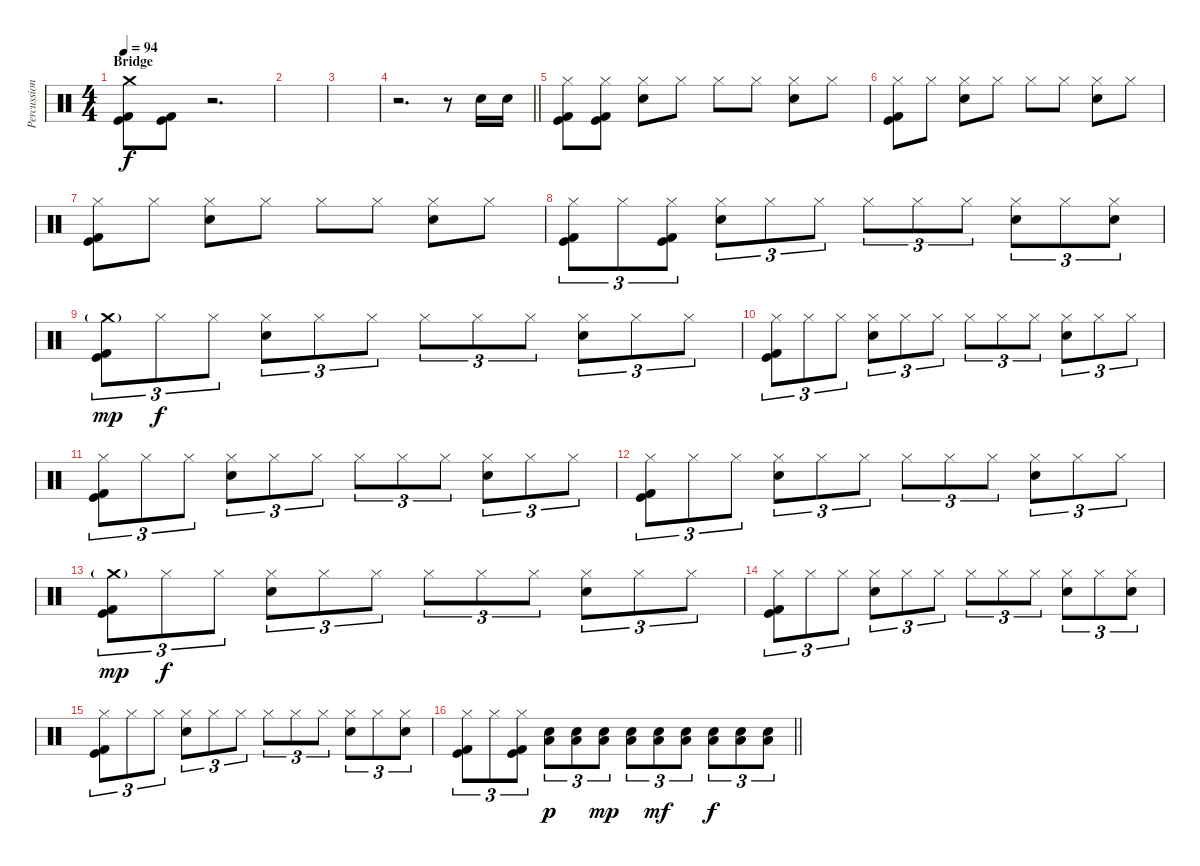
\track ("Percussion" "Percussion") {instrument percussion}
\staff {score}
\articulation defaults
\ts (4 4)
\section ("" "Bridge")
\tempo 94
\clef neutral
\ks c
("Crash medium (hit)" "Kick (hit)" "Kick (hit) 2").8{dy f} ("Kick (hit)" "Kick (hit) 2").8 r.2{d} |
|
|
\barLineRight lightlight
r.2{d} r.8 "Electric Snare (hit)".16 "Electric Snare (hit)".16 |
("Hi-Hat (closed)" "Kick (hit)" "Kick (hit) 2").8 ("Hi-Hat (closed)" "Kick (hit)" "Kick (hit) 2").8 ("Hi-Hat (closed)" "Electric Snare (hit)").8 "Hi-Hat (closed)".8 "Hi-Hat (closed)".8 "Hi-Hat (closed)".8 ("Hi-Hat (closed)" "Electric Snare (hit)").8 "Hi-Hat (closed)".8 |
("Hi-Hat (closed)" "Kick (hit)" "Kick (hit) 2").8 "Hi-Hat (closed)".8 ("Hi-Hat (closed)" "Electric Snare (hit)").8 "Hi-Hat (closed)".8 "Hi-Hat (closed)".8 "Hi-Hat (closed)".8 ("Hi-Hat (closed)" "Electric Snare (hit)").8 "Hi-Hat (closed)".8 |
("Hi-Hat (closed)" "Kick (hit)" "Kick (hit) 2").8 "Hi-Hat (closed)".8 ("Hi-Hat (closed)" "Electric Snare (hit)").8 "Hi-Hat (closed)".8 "Hi-Hat (closed)".8 "Hi-Hat (closed)".8 ("Hi-Hat (closed)" "Electric Snare (hit)").8 "Hi-Hat (closed)".8 |
("Hi-Hat (closed)" "Kick (hit)" "Kick (hit) 2").8{tu (3 2)} "Hi-Hat (closed)".8{tu (3 2)} ("Hi-Hat (closed)" "Kick (hit)" "Kick (hit) 2").8{tu (3 2)} ("Hi-Hat (closed)" "Electric Snare (hit)").8{tu (3 2)} "Hi-Hat (closed)".8{tu (3 2)} "Hi-Hat (closed)".8{tu (3 2)} "Hi-Hat (closed)".8{tu (3 2)} "Hi-Hat (closed)".8{tu (3 2)} "Hi-Hat (closed)".8{tu (3 2)} ("Hi-Hat (closed)" "Electric Snare (hit)").8{tu (3 2)} "Hi-Hat (closed)".8{tu (3 2)} ("Hi-Hat (closed)" "Electric Snare (hit)").8{tu (3 2)} |
("Crash medium (hit)"{g} "Kick (hit)" "Kick (hit) 2").8{tu (3 2) dy mp} "Hi-Hat (closed)".8{tu (3 2) dy f} "Hi-Hat (closed)".8{tu (3 2)} ("Hi-Hat (closed)" "Electric Snare (hit)").8{tu (3 2)} "Hi-Hat (closed)".8{tu (3 2)} "Hi-Hat (closed)".8{tu (3 2)} "Hi-Hat (closed)".8{tu (3 2)} "Hi-Hat (closed)".8{tu (3 2)} "Hi-Hat (closed)".8{tu (3 2)} ("Hi-Hat (closed)" "Electric Snare (hit)").8{tu (3 2)} "Hi-Hat (closed)".8{tu (3 2)} "Hi-Hat (closed)".8{tu (3 2)} |
("Hi-Hat (closed)" "Kick (hit)" "Kick (hit) 2").8{tu (3 2)} "Hi-Hat (closed)".8{tu (3 2)} "Hi-Hat (closed)".8{tu (3 2)} ("Hi-Hat (closed)" "Electric Snare (hit)").8{tu (3 2)} "Hi-Hat (closed)".8{tu (3 2)} "Hi-Hat (closed)".8{tu (3 2)} "Hi-Hat (closed)".8{tu (3 2)} "Hi-Hat (closed)".8{tu (3 2)} "Hi-Hat (closed)".8{tu (3 2)} ("Hi-Hat (closed)" "Electric Snare (hit)").8{tu (3 2)} "Hi-Hat (closed)".8{tu (3 2)} "Hi-Hat (closed)".8{tu (3 2)} |
("Hi-Hat (closed)" "Kick (hit)" "Kick (hit) 2").8{tu (3 2)} "Hi-Hat (closed)".8{tu (3 2)} "Hi-Hat (closed)".8{tu (3 2)} ("Hi-Hat (closed)" "Electric Snare (hit)").8{tu (3 2)} "Hi-Hat (closed)".8{tu (3 2)} "Hi-Hat (closed)".8{tu (3 2)} "Hi-Hat (closed)".8{tu (3 2)} "Hi-Hat (closed)".8{tu (3 2)} "Hi-Hat (closed)".8{tu (3 2)} ("Hi-Hat (closed)" "Electric Snare (hit)").8{tu (3 2)} "Hi-Hat (closed)".8{tu (3 2)} "Hi-Hat (closed)".8{tu (3 2)} |
("Hi-Hat (closed)" "Kick (hit)" "Kick (hit) 2").8{tu (3 2)} "Hi-Hat (closed)".8{tu (3 2)} "Hi-Hat (closed)".8{tu (3 2)} ("Hi-Hat (closed)" "Electric Snare (hit)").8{tu (3 2)} "Hi-Hat (closed)".8{tu (3 2)} "Hi-Hat (closed)".8{tu (3 2)} "Hi-Hat (closed)".8{tu (3 2)} "Hi-Hat (closed)".8{tu (3 2)} "Hi-Hat (closed)".8{tu (3 2)} ("Hi-Hat (closed)" "Electric Snare (hit)").8{tu (3 2)} "Hi-Hat (closed)".8{tu (3 2)} "Hi-Hat (closed)".8{tu (3 2)} |
("Crash medium (hit)"{g} "Kick (hit)" "Kick (hit) 2").8{tu (3 2) dy mp} "Hi-Hat (closed)".8{tu (3 2) dy f} "Hi-Hat (closed)".8{tu (3 2)} ("Hi-Hat (closed)" "Electric Snare (hit)").8{tu (3 2)} "Hi-Hat (closed)".8{tu (3 2)} "Hi-Hat (closed)".8{tu (3 2)} "Hi-Hat (closed)".8{tu (3 2)} "Hi-Hat (closed)".8{tu (3 2)} "Hi-Hat (closed)".8{tu (3 2)} ("Hi-Hat (closed)" "Electric Snare (hit)").8{tu (3 2)} "Hi-Hat (closed)".8{tu (3 2)} "Hi-Hat (closed)".8{tu (3 2)} |
("Hi-Hat (closed)" "Kick (hit)" "Kick (hit) 2").8{tu (3 2)} "Hi-Hat (closed)".8{tu (3 2)} "Hi-Hat (closed)".8{tu (3 2)} ("Hi-Hat (closed)" "Electric Snare (hit)").8{tu (3 2)} "Hi-Hat (closed)".8{tu (3 2)} "Hi-Hat (closed)".8{tu (3 2)} "Hi-Hat (closed)".8{tu (3 2)} "Hi-Hat (closed)".8{tu (3 2)} "Hi-Hat (closed)".8{tu (3 2)} ("Hi-Hat (closed)" "Electric Snare (hit)").8{tu (3 2)} "Hi-Hat (closed)".8{tu (3 2)} ("Hi-Hat (closed)" "Electric Snare (hit)").8{tu (3 2)} |
("Hi-Hat (closed)" "Kick (hit)" "Kick (hit) 2").8{tu (3 2)} "Hi-Hat (closed)".8{tu (3 2)} "Hi-Hat (closed)".8{tu (3 2)} ("Hi-Hat (closed)" "Electric Snare (hit)").8{tu (3 2)} "Hi-Hat (closed)".8{tu (3 2)} "Hi-Hat (closed)".8{tu (3 2)} "Hi-Hat (closed)".8{tu (3 2)} "Hi-Hat (closed)".8{tu (3 2)} "Hi-Hat (closed)".8{tu (3 2)} ("Hi-Hat (closed)" "Electric Snare (hit)").8{tu (3 2)} "Hi-Hat (closed)".8{tu (3 2)} ("Hi-Hat (closed)" "Electric Snare (hit)").8{tu (3 2)} |
\barLineRight lightlight
("Hi-Hat (closed)" "Kick (hit)" "Kick (hit) 2").8{tu (3 2)} "Hi-Hat (closed)".8{tu (3 2)} ("Hi-Hat (closed)" "Kick (hit)" "Kick (hit) 2").8{tu (3 2)} ("Electric Snare (hit)" "Low Floor Tom (hit)").8{tu (3 2) dy p} ("Electric Snare (hit)" "Low Floor Tom (hit)").8{tu (3 2)} ("Electric Snare (hit)" "Low Floor Tom (hit)").8{tu (3 2) dy mp} ("Electric Snare (hit)" "Low Floor Tom (hit)").8{tu (3 2)} ("Electric Snare (hit)" "Low Floor Tom (hit)").8{tu (3 2) dy mf} ("Electric Snare (hit)" "Low Floor Tom (hit)").8{tu (3 2)} ("Electric Snare (hit)" "Low Floor Tom (hit)").8{tu (3 2) dy f} ("Electric Snare (hit)" "Low Floor Tom (hit)").8{tu (3 2)} ("Electric Snare (hit)" "Low Floor Tom (hit)").8{tu (3 2)}
